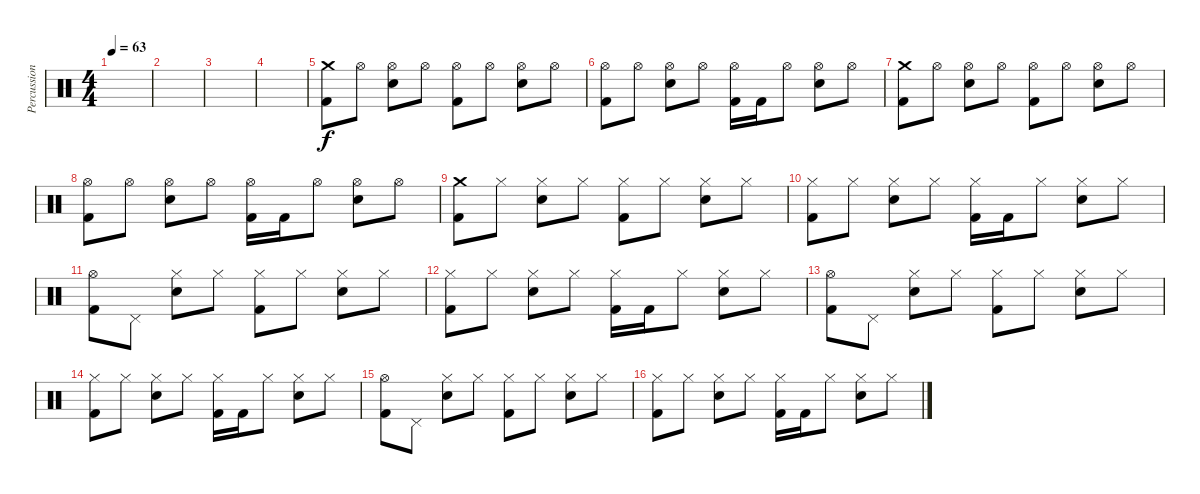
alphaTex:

\track ("Percussion" "Percussion") {instrument percussion}
\staff {score}
\articulation defaults
\ts (4 4)
\tempo 63
\clef neutral
\ks c
|
|
|
|
("Crash medium (hit)" "Kick (hit) 2").8 "Hi-Hat (open)".8 ("Hi-Hat (open)" "Snare (hit) 2").8 "Hi-Hat (open)".8 ("Hi-Hat (open)" "Kick (hit) 2").8 "Hi-Hat (open)".8 ("Hi-Hat (open)" "Snare (hit) 2").8 "Hi-Hat (open)".8 |
("Hi-Hat (open)" "Kick (hit) 2").8 "Hi-Hat (open)".8 ("Hi-Hat (open)" "Snare (hit) 2").8 "Hi-Hat (open)".8 ("Hi-Hat (open)" "Kick (hit) 2").16 "Kick (hit) 2".16 "Hi-Hat (open)".8 ("Hi-Hat (open)" "Snare (hit) 2").8 "Hi-Hat (open)".8 |
("Crash medium (hit)" "Kick (hit) 2").8 "Hi-Hat (open)".8 ("Hi-Hat (open)" "Snare (hit) 2").8 "Hi-Hat (open)".8 ("Hi-Hat (open)" "Kick (hit) 2").8 "Hi-Hat (open)".8 ("Hi-Hat (open)" "Snare (hit) 2").8 "Hi-Hat (open)".8 |
("Hi-Hat (open)" "Kick (hit) 2").8 "Hi-Hat (open)".8 ("Hi-Hat (open)" "Snare (hit) 2").8 "Hi-Hat (open)".8 ("Hi-Hat (open)" "Kick (hit) 2").16 "Kick (hit) 2".16 "Hi-Hat (open)".8 ("Hi-Hat (open)" "Snare (hit) 2").8 "Hi-Hat (open)".8 |
("Crash medium (hit)" "Kick (hit) 2").8 "Hi-Hat (closed)".8 ("Hi-Hat (closed)" "Snare (hit) 2").8 "Hi-Hat (closed)".8 ("Hi-Hat (closed)" "Kick (hit) 2").8 "Hi-Hat (closed)".8 ("Hi-Hat (closed)" "Snare (hit) 2").8 "Hi-Hat (closed)".8 |
("Hi-Hat (closed)" "Kick (hit) 2").8 "Hi-Hat (closed)".8 ("Hi-Hat (closed)" "Snare (hit) 2").8 "Hi-Hat (closed)".8 ("Hi-Hat (closed)" "Kick (hit) 2").16 "Kick (hit) 2".16 "Hi-Hat (closed)".8 ("Hi-Hat (closed)" "Snare (hit) 2").8 "Hi-Hat (closed)".8 |
("Hi-Hat (open)" "Kick (hit) 2").8 "Pedal Hi-Hat (hit)".8 ("Hi-Hat (closed)" "Snare (hit) 2").8 "Hi-Hat (closed)".8 ("Hi-Hat (closed)" "Kick (hit) 2").8 "Hi-Hat (closed)".8 ("Hi-Hat (closed)" "Snare (hit) 2").8 "Hi-Hat (closed)".8 |
("Hi-Hat (closed)" "Kick (hit) 2").8 "Hi-Hat (closed)".8 ("Hi-Hat (closed)" "Snare (hit) 2").8 "Hi-Hat (closed)".8 ("Hi-Hat (closed)" "Kick (hit) 2").16 "Kick (hit) 2".16 "Hi-Hat (closed)".8 ("Hi-Hat (closed)" "Snare (hit) 2").8 "Hi-Hat (closed)".8 |
("Hi-Hat (open)" "Kick (hit) 2").8 "Pedal Hi-Hat (hit)".8 ("Hi-Hat (closed)" "Snare (hit) 2").8 "Hi-Hat (closed)".8 ("Hi-Hat (closed)" "Kick (hit) 2").8 "Hi-Hat (closed)".8 ("Hi-Hat (closed)" "Snare (hit) 2").8 "Hi-Hat (closed)".8 |
("Hi-Hat (closed)" "Kick (hit) 2").8 "Hi-Hat (closed)".8 ("Hi-Hat (closed)" "Snare (hit) 2").8 "Hi-Hat (closed)".8 ("Hi-Hat (closed)" "Kick (hit) 2").16 "Kick (hit) 2".16 "Hi-Hat (closed)".8 ("Hi-Hat (closed)" "Snare (hit) 2").8 "Hi-Hat (closed)".8 |
("Hi-Hat (open)" "Kick (hit) 2").8 "Pedal Hi-Hat (hit)".8 ("Hi-Hat (closed)" "Snare (hit) 2").8 "Hi-Hat (closed)".8 ("Hi-Hat (closed)" "Kick (hit) 2").8 "Hi-Hat (closed)".8 ("Hi-Hat (closed)" "Snare (hit) 2").8 "Hi-Hat (closed)".8 |
("Hi-Hat (closed)" "Kick (hit) 2").8 "Hi-Hat (closed)".8 ("Hi-Hat (closed)" "Snare (hit) 2").8 "Hi-Hat (closed)".8 ("Hi-Hat (closed)" "Kick (hit) 2").16 "Kick (hit) 2".16 "Hi-Hat (closed)".8 ("Hi-Hat (closed)" "Snare (hit) 2").8 "Hi-Hat (closed)".8
